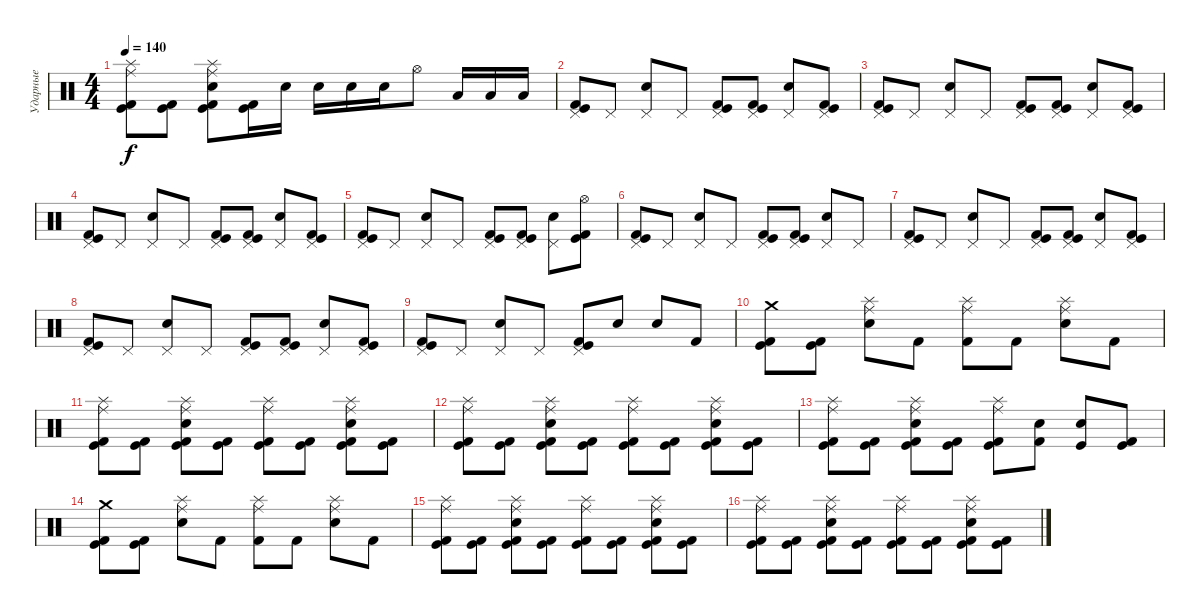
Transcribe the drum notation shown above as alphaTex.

\track ("Ударные" "Ударные") {instrument percussion}
\staff {score}
\articulation defaults
\ts (4 4)
\tempo 140
\clef neutral
\ks c
("Ride (middle)" "Splash (hit)" "Kick (hit) 2" "Kick (hit)").8{dy f} ("Kick (hit)" "Kick (hit) 2").8 ("Ride (middle)" "Splash (hit)" "Kick (hit) 2" "Kick (hit)" "Electric Snare (hit)").8 ("Kick (hit)" "Kick (hit) 2").16 "Electric Snare (hit)".16 "Electric Snare (hit)".16 "Electric Snare (hit)".16 "Electric Snare (hit)".16 "Hi-Hat (open)".8 "Low Floor Tom (hit)".16 "Low Floor Tom (hit)".16 "Low Floor Tom (hit)".16 |
("Pedal Hi-Hat (hit)" "Kick (hit) 2" "Kick (hit)").8 "Pedal Hi-Hat (hit)".8 ("Pedal Hi-Hat (hit)" "Electric Snare (hit)").8 "Pedal Hi-Hat (hit)".8 ("Pedal Hi-Hat (hit)" "Kick (hit)" "Kick (hit) 2").8 ("Pedal Hi-Hat (hit)" "Kick (hit) 2" "Kick (hit)").8 ("Pedal Hi-Hat (hit)" "Electric Snare (hit)").8 ("Pedal Hi-Hat (hit)" "Kick (hit)" "Kick (hit) 2").8 |
("Pedal Hi-Hat (hit)" "Kick (hit)" "Kick (hit) 2").8 "Pedal Hi-Hat (hit)".8 ("Pedal Hi-Hat (hit)" "Electric Snare (hit)").8 "Pedal Hi-Hat (hit)".8 ("Pedal Hi-Hat (hit)" "Kick (hit) 2" "Kick (hit)").8 ("Pedal Hi-Hat (hit)" "Kick (hit) 2" "Kick (hit)").8 ("Pedal Hi-Hat (hit)" "Electric Snare (hit)").8 ("Pedal Hi-Hat (hit)" "Kick (hit) 2" "Kick (hit)").8 |
("Pedal Hi-Hat (hit)" "Kick (hit)" "Kick (hit) 2").8 "Pedal Hi-Hat (hit)".8 ("Pedal Hi-Hat (hit)" "Electric Snare (hit)").8 "Pedal Hi-Hat (hit)".8 ("Pedal Hi-Hat (hit)" "Kick (hit)" "Kick (hit) 2").8 ("Pedal Hi-Hat (hit)" "Kick (hit) 2" "Kick (hit)").8 ("Pedal Hi-Hat (hit)" "Electric Snare (hit)").8 ("Pedal Hi-Hat (hit)" "Kick (hit)" "Kick (hit) 2").8 |
("Pedal Hi-Hat (hit)" "Kick (hit)" "Kick (hit) 2").8 "Pedal Hi-Hat (hit)".8 ("Pedal Hi-Hat (hit)" "Electric Snare (hit)").8 "Pedal Hi-Hat (hit)".8 ("Pedal Hi-Hat (hit)" "Kick (hit) 2" "Kick (hit)").8 ("Pedal Hi-Hat (hit)" "Kick (hit) 2" "Kick (hit)").8 ("Pedal Hi-Hat (hit)" "Electric Snare (hit)").8 ("Hi-Hat (open)" "Kick (hit) 2" "Kick (hit)").8 |
("Pedal Hi-Hat (hit)" "Kick (hit)" "Kick (hit) 2").8 "Pedal Hi-Hat (hit)".8 ("Pedal Hi-Hat (hit)" "Electric Snare (hit)").8 "Pedal Hi-Hat (hit)".8 ("Pedal Hi-Hat (hit)" "Kick (hit)" "Kick (hit) 2").8 ("Pedal Hi-Hat (hit)" "Kick (hit) 2" "Kick (hit)").8 ("Pedal Hi-Hat (hit)" "Electric Snare (hit)").8 "Pedal Hi-Hat (hit)".8 |
("Pedal Hi-Hat (hit)" "Kick (hit) 2" "Kick (hit)").8 "Pedal Hi-Hat (hit)".8 ("Pedal Hi-Hat (hit)" "Electric Snare (hit)").8 "Pedal Hi-Hat (hit)".8 ("Pedal Hi-Hat (hit)" "Kick (hit)" "Kick (hit) 2").8 ("Pedal Hi-Hat (hit)" "Kick (hit) 2" "Kick (hit)").8 ("Pedal Hi-Hat (hit)" "Electric Snare (hit)").8 ("Pedal Hi-Hat (hit)" "Kick (hit)" "Kick (hit) 2").8 |
("Pedal Hi-Hat (hit)" "Kick (hit)" "Kick (hit) 2").8 "Pedal Hi-Hat (hit)".8 ("Pedal Hi-Hat (hit)" "Electric Snare (hit)").8 "Pedal Hi-Hat (hit)".8 ("Pedal Hi-Hat (hit)" "Kick (hit) 2" "Kick (hit)").8 ("Pedal Hi-Hat (hit)" "Kick (hit) 2" "Kick (hit)").8 ("Pedal Hi-Hat (hit)" "Electric Snare (hit)").8 ("Pedal Hi-Hat (hit)" "Kick (hit) 2" "Kick (hit)").8 |
("Pedal Hi-Hat (hit)" "Kick (hit)" "Kick (hit) 2").8 "Pedal Hi-Hat (hit)".8 ("Pedal Hi-Hat (hit)" "Electric Snare (hit)").8 "Pedal Hi-Hat (hit)".8 ("Pedal Hi-Hat (hit)" "Kick (hit)" "Kick (hit) 2").8 "Electric Snare (hit)".8 "Electric Snare (hit)".8 "Kick (hit) 2".8 |
("Crash medium (hit)" "Kick (hit) 2" "Kick (hit)").8 ("Kick (hit)" "Kick (hit) 2").8 ("Ride (middle)" "Splash (hit)" "Electric Snare (hit)").8 "Kick (hit) 2".8 ("Ride (middle)" "Splash (hit)" "Kick (hit) 2").8 "Kick (hit) 2".8 ("Ride (middle)" "Splash (hit)" "Electric Snare (hit)").8 "Kick (hit) 2".8 |
("Ride (middle)" "Splash (hit)" "Kick (hit) 2" "Kick (hit)").8 ("Kick (hit)" "Kick (hit) 2").8 ("Ride (middle)" "Splash (hit)" "Kick (hit) 2" "Kick (hit)" "Electric Snare (hit)").8 ("Kick (hit)" "Kick (hit) 2").8 ("Ride (middle)" "Splash (hit)" "Kick (hit) 2" "Kick (hit)").8 ("Kick (hit)" "Kick (hit) 2").8 ("Ride (middle)" "Splash (hit)" "Kick (hit) 2" "Kick (hit)" "Electric Snare (hit)").8 ("Kick (hit)" "Kick (hit) 2").8 |
("Ride (middle)" "Splash (hit)" "Kick (hit) 2" "Kick (hit)").8 ("Kick (hit)" "Kick (hit) 2").8 ("Ride (middle)" "Splash (hit)" "Kick (hit) 2" "Kick (hit)" "Electric Snare (hit)").8 ("Kick (hit)" "Kick (hit) 2").8 ("Ride (middle)" "Splash (hit)" "Kick (hit) 2" "Kick (hit)").8 ("Kick (hit)" "Kick (hit) 2").8 ("Ride (middle)" "Splash (hit)" "Kick (hit) 2" "Kick (hit)" "Electric Snare (hit)").8 ("Kick (hit)" "Kick (hit) 2").8 |
("Ride (middle)" "Splash (hit)" "Kick (hit) 2" "Kick (hit)").8 ("Kick (hit)" "Kick (hit) 2").8 ("Ride (middle)" "Splash (hit)" "Kick (hit) 2" "Kick (hit)" "Electric Snare (hit)").8 ("Kick (hit)" "Kick (hit) 2").8 ("Ride (middle)" "Splash (hit)" "Kick (hit) 2" "Kick (hit)").8 ("Electric Snare (hit)" "Kick (hit) 2").8 ("Electric Snare (hit)" "Kick (hit)").8 ("Kick (hit)" "Kick (hit) 2").8 |
("Crash medium (hit)" "Kick (hit) 2" "Kick (hit)").8 ("Kick (hit)" "Kick (hit) 2").8 ("Ride (middle)" "Splash (hit)" "Electric Snare (hit)").8 "Kick (hit) 2".8 ("Ride (middle)" "Splash (hit)" "Kick (hit) 2").8 "Kick (hit) 2".8 ("Ride (middle)" "Splash (hit)" "Electric Snare (hit)").8 "Kick (hit) 2".8 |
("Ride (middle)" "Splash (hit)" "Kick (hit) 2" "Kick (hit)").8 ("Kick (hit)" "Kick (hit) 2").8 ("Ride (middle)" "Splash (hit)" "Kick (hit) 2" "Kick (hit)" "Electric Snare (hit)").8 ("Kick (hit)" "Kick (hit) 2").8 ("Ride (middle)" "Splash (hit)" "Kick (hit) 2" "Kick (hit)").8 ("Kick (hit)" "Kick (hit) 2").8 ("Ride (middle)" "Splash (hit)" "Kick (hit) 2" "Kick (hit)" "Electric Snare (hit)").8 ("Kick (hit)" "Kick (hit) 2").8 |
("Ride (middle)" "Splash (hit)" "Kick (hit) 2" "Kick (hit)").8 ("Kick (hit)" "Kick (hit) 2").8 ("Ride (middle)" "Splash (hit)" "Kick (hit) 2" "Kick (hit)" "Electric Snare (hit)").8 ("Kick (hit)" "Kick (hit) 2").8 ("Ride (middle)" "Splash (hit)" "Kick (hit) 2" "Kick (hit)").8 ("Kick (hit)" "Kick (hit) 2").8 ("Ride (middle)" "Splash (hit)" "Kick (hit) 2" "Kick (hit)" "Electric Snare (hit)").8 ("Kick (hit)" "Kick (hit) 2").8
